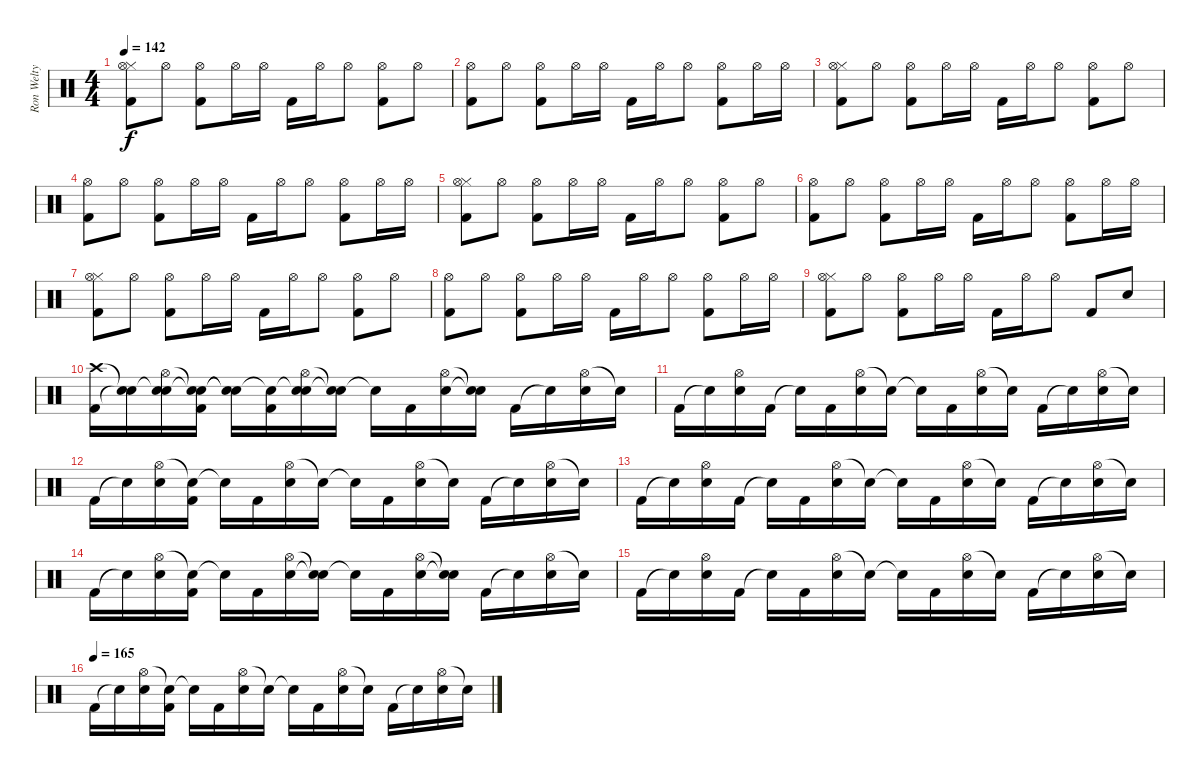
\track ("Ron Welty" "Ron Welty") {instrument percussion}
\staff {score}
\articulation defaults
\ts (4 4)
\tempo 142
\clef neutral
\ks c
("Hi-Hat (closed)" "Hi-Hat (open)" "Kick (hit) 2").8{dy f} "Hi-Hat (open)".8 ("Hi-Hat (open)" "Kick (hit) 2").8 "Hi-Hat (open)".16 "Hi-Hat (open)".16 "Kick (hit) 2".16 "Hi-Hat (open)".16 "Hi-Hat (open)".8 ("Hi-Hat (open)" "Kick (hit) 2").8 "Hi-Hat (open)".8 |
("Hi-Hat (open)" "Kick (hit) 2").8 "Hi-Hat (open)".8 ("Hi-Hat (open)" "Kick (hit) 2").8 "Hi-Hat (open)".16 "Hi-Hat (open)".16 "Kick (hit) 2".16 "Hi-Hat (open)".16 "Hi-Hat (open)".8 ("Hi-Hat (open)" "Kick (hit) 2").8 "Hi-Hat (open)".16 "Hi-Hat (open)".16 |
("Hi-Hat (closed)" "Hi-Hat (open)" "Kick (hit) 2").8 "Hi-Hat (open)".8 ("Hi-Hat (open)" "Kick (hit) 2").8 "Hi-Hat (open)".16 "Hi-Hat (open)".16 "Kick (hit) 2".16 "Hi-Hat (open)".16 "Hi-Hat (open)".8 ("Hi-Hat (open)" "Kick (hit) 2").8 "Hi-Hat (open)".8 |
("Hi-Hat (open)" "Kick (hit) 2").8 "Hi-Hat (open)".8 ("Hi-Hat (open)" "Kick (hit) 2").8 "Hi-Hat (open)".16 "Hi-Hat (open)".16 "Kick (hit) 2".16 "Hi-Hat (open)".16 "Hi-Hat (open)".8 ("Hi-Hat (open)" "Kick (hit) 2").8 "Hi-Hat (open)".16 "Hi-Hat (open)".16 |
("Hi-Hat (closed)" "Hi-Hat (open)" "Kick (hit) 2").8 "Hi-Hat (open)".8 ("Hi-Hat (open)" "Kick (hit) 2").8 "Hi-Hat (open)".16 "Hi-Hat (open)".16 "Kick (hit) 2".16 "Hi-Hat (open)".16 "Hi-Hat (open)".8 ("Hi-Hat (open)" "Kick (hit) 2").8 "Hi-Hat (open)".8 |
("Hi-Hat (open)" "Kick (hit) 2").8 "Hi-Hat (open)".8 ("Hi-Hat (open)" "Kick (hit) 2").8 "Hi-Hat (open)".16 "Hi-Hat (open)".16 "Kick (hit) 2".16 "Hi-Hat (open)".16 "Hi-Hat (open)".8 ("Hi-Hat (open)" "Kick (hit) 2").8 "Hi-Hat (open)".16 "Hi-Hat (open)".16 |
("Hi-Hat (closed)" "Hi-Hat (open)" "Kick (hit) 2").8 "Hi-Hat (open)".8 ("Hi-Hat (open)" "Kick (hit) 2").8 "Hi-Hat (open)".16 "Hi-Hat (open)".16 "Kick (hit) 2".16 "Hi-Hat (open)".16 "Hi-Hat (open)".8 ("Hi-Hat (open)" "Kick (hit) 2").8 "Hi-Hat (open)".8 |
("Hi-Hat (open)" "Kick (hit) 2").8 "Hi-Hat (open)".8 ("Hi-Hat (open)" "Kick (hit) 2").8 "Hi-Hat (open)".16 "Hi-Hat (open)".16 "Kick (hit) 2".16 "Hi-Hat (open)".16 "Hi-Hat (open)".8 ("Hi-Hat (open)" "Kick (hit) 2").8 "Hi-Hat (open)".16 "Hi-Hat (open)".16 |
("Hi-Hat (closed)" "Hi-Hat (open)" "Kick (hit) 2").8 "Hi-Hat (open)".8 ("Hi-Hat (open)" "Kick (hit) 2").8 "Hi-Hat (open)".16 "Hi-Hat (open)".16 "Kick (hit) 2".16 "Hi-Hat (open)".16 "Hi-Hat (open)".8 "Kick (hit) 2".8 "Snare (hit) 2".8 |
("Crash high (hit)" "Kick (hit) 2").16 ("Snare (hit)"{t} "Snare (hit)"{t}).16 ("Snare (hit)"{t} "Hi-Hat (open)" "Electric Snare (hit)").16 ("Snare (hit)"{t} "Snare (hit)"{t} "Kick (hit) 2").16 ("Snare (hit)"{t} "Snare (hit)"{t}).16 ("Snare (hit)"{t} "Kick (hit) 2").16 ("Snare (hit)"{t} "Hi-Hat (open)" "Electric Snare (hit)").16 ("Snare (hit)"{t} "Snare (hit)"{t}).16 "Snare (hit)"{t}.16 "Kick (hit) 2".16 ("Hi-Hat (open)" "Electric Snare (hit)").16 ("Snare (hit)"{t} "Snare (hit)"{t}).16 "Kick (hit) 2".16 "Snare (hit)"{t}.16 ("Hi-Hat (open)" "Electric Snare (hit)").16 "Snare (hit)"{t}.16 |
"Kick (hit) 2".16 "Snare (hit)"{t}.16 ("Hi-Hat (open)" "Electric Snare (hit)").16 "Kick (hit) 2".16 "Snare (hit)"{t}.16 "Kick (hit) 2".16 ("Hi-Hat (open)" "Electric Snare (hit)").16 "Snare (hit)"{t}.16 "Snare (hit)"{t}.16 "Kick (hit) 2".16 ("Hi-Hat (open)" "Electric Snare (hit)").16 "Snare (hit)"{t}.16 "Kick (hit) 2".16 "Snare (hit)"{t}.16 ("Hi-Hat (open)" "Electric Snare (hit)").16 "Snare (hit)"{t}.16 |
"Kick (hit) 2".16 "Snare (hit)"{t}.16 ("Hi-Hat (open)" "Electric Snare (hit)").16 ("Snare (hit)"{t} "Kick (hit) 2").16 "Snare (hit)"{t}.16 "Kick (hit) 2".16 ("Hi-Hat (open)" "Electric Snare (hit)").16 "Snare (hit)"{t}.16 "Snare (hit)"{t}.16 "Kick (hit) 2".16 ("Hi-Hat (open)" "Electric Snare (hit)").16 "Snare (hit)"{t}.16 "Kick (hit) 2".16 "Snare (hit)"{t}.16 ("Hi-Hat (open)" "Electric Snare (hit)").16 "Snare (hit)"{t}.16 |
"Kick (hit) 2".16 "Snare (hit)"{t}.16 ("Hi-Hat (open)" "Electric Snare (hit)").16 "Kick (hit) 2".16 "Snare (hit)"{t}.16 "Kick (hit) 2".16 ("Hi-Hat (open)" "Electric Snare (hit)").16 "Snare (hit)"{t}.16 "Snare (hit)"{t}.16 "Kick (hit) 2".16 ("Hi-Hat (open)" "Electric Snare (hit)").16 "Snare (hit)"{t}.16 "Kick (hit) 2".16 "Snare (hit)"{t}.16 ("Hi-Hat (open)" "Electric Snare (hit)").16 "Snare (hit)"{t}.16 |
"Kick (hit) 2".16 "Snare (hit)"{t}.16 ("Hi-Hat (open)" "Electric Snare (hit)").16 ("Snare (hit)"{t} "Kick (hit) 2").16 "Snare (hit)"{t}.16 "Kick (hit) 2".16 ("Hi-Hat (open)" "Electric Snare (hit)").16 ("Snare (hit)"{t} "Snare (hit)"{t}).16 "Snare (hit)"{t}.16 "Kick (hit) 2".16 ("Hi-Hat (open)" "Electric Snare (hit)").16 ("Snare (hit)"{t} "Snare (hit)"{t}).16 "Kick (hit) 2".16 "Snare (hit)"{t}.16 ("Hi-Hat (open)" "Electric Snare (hit)").16 "Snare (hit)"{t}.16 |
"Kick (hit) 2".16 "Snare (hit)"{t}.16 ("Hi-Hat (open)" "Electric Snare (hit)").16 "Kick (hit) 2".16 "Snare (hit)"{t}.16 "Kick (hit) 2".16 ("Hi-Hat (open)" "Electric Snare (hit)").16 "Snare (hit)"{t}.16 "Snare (hit)"{t}.16 "Kick (hit) 2".16 ("Hi-Hat (open)" "Electric Snare (hit)").16 "Snare (hit)"{t}.16 "Kick (hit) 2".16 "Snare (hit)"{t}.16 ("Hi-Hat (open)" "Electric Snare (hit)").16 "Snare (hit)"{t}.16 |
\tempo (165)
"Kick (hit) 2".16 "Snare (hit)"{t}.16 ("Hi-Hat (open)" "Electric Snare (hit)").16 ("Snare (hit)"{t} "Kick (hit) 2").16 "Snare (hit)"{t}.16 "Kick (hit) 2".16 ("Hi-Hat (open)" "Electric Snare (hit)").16 "Snare (hit)"{t}.16 "Snare (hit)"{t}.16 "Kick (hit) 2".16 ("Hi-Hat (open)" "Electric Snare (hit)").16 "Snare (hit)"{t}.16 "Kick (hit) 2".16 "Snare (hit)"{t}.16 ("Hi-Hat (open)" "Electric Snare (hit)").16 "Snare (hit)"{t}.16
